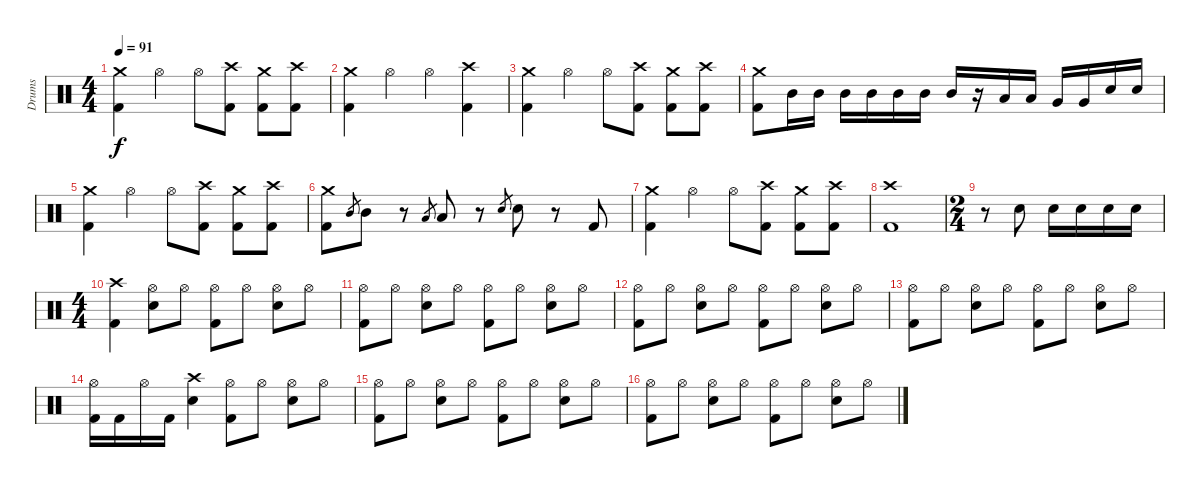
\track ("Drums" "Drums") {instrument percussion}
\staff {score}
\articulation defaults
\ts (4 4)
\tempo 91
\clef neutral
\ks c
("Crash medium (hit)" "Kick (hit) 2").4{dy f} "Hi-Hat (open)".4 "Hi-Hat (open)".8 ("Crash high (hit)" "Kick (hit) 2").8 ("Crash medium (hit)" "Kick (hit) 2").8 ("Crash high (hit)" "Kick (hit) 2").8 |
("Crash medium (hit)" "Kick (hit) 2").4 "Hi-Hat (open)".4 "Hi-Hat (open)".4 ("Crash high (hit)" "Kick (hit) 2").4 |
("Crash medium (hit)" "Kick (hit) 2").4 "Hi-Hat (open)".4 "Hi-Hat (open)".8 ("Crash high (hit)" "Kick (hit) 2").8 ("Crash medium (hit)" "Kick (hit) 2").8 ("Crash high (hit)" "Kick (hit) 2").8 |
("Crash medium (hit)" "Kick (hit) 2").8 "Mid Tom (hit)".16 "Mid Tom (hit)".16 "Mid Tom (hit)".16 "Mid Tom (hit)".16 "Mid Tom (hit)".16 "Mid Tom (hit)".16 "Mid Tom (hit)".16 r.16 "Low Tom (hit)".16 "Low Tom (hit)".16 "Very Low Tom (hit)".16 "Very Low Tom (hit)".16 "Electric Snare (hit)".16 "Electric Snare (hit)".16 |
("Crash medium (hit)" "Kick (hit) 2").4 "Hi-Hat (open)".4 "Hi-Hat (open)".8 ("Crash high (hit)" "Kick (hit) 2").8 ("Crash medium (hit)" "Kick (hit) 2").8 ("Crash high (hit)" "Kick (hit) 2").8 |
("Crash medium (hit)" "Kick (hit) 2").8 "Mid Tom (hit)".8{gr} "Mid Tom (hit)".8 r.8 "Low Tom (hit)".8{gr} "Low Tom (hit)".8 r.8 "Electric Snare (hit)".8{gr} "Electric Snare (hit)".8 r.8 "Kick (hit) 2".8 |
("Crash medium (hit)" "Kick (hit) 2").4 "Hi-Hat (open)".4 "Hi-Hat (open)".8 ("Crash high (hit)" "Kick (hit) 2").8 ("Crash medium (hit)" "Kick (hit) 2").8 ("Crash high (hit)" "Kick (hit) 2").8 |
("Crash high (hit)" "Kick (hit) 2").1 |
\ts (2 4)
r.8 "Electric Snare (hit)".8 "Electric Snare (hit)".16 "Electric Snare (hit)".16 "Electric Snare (hit)".16 "Electric Snare (hit)".16 |
\ts (4 4)
("Crash high (hit)" "Kick (hit) 2").4 ("Hi-Hat (open)" "Electric Snare (hit)").8 "Hi-Hat (open)".8 ("Hi-Hat (open)" "Kick (hit) 2").8 "Hi-Hat (open)".8 ("Hi-Hat (open)" "Electric Snare (hit)").8 "Hi-Hat (open)".8 |
("Hi-Hat (open)" "Kick (hit) 2").8 "Hi-Hat (open)".8 ("Hi-Hat (open)" "Electric Snare (hit)").8 "Hi-Hat (open)".8 ("Hi-Hat (open)" "Kick (hit) 2").8 "Hi-Hat (open)".8 ("Hi-Hat (open)" "Electric Snare (hit)").8 "Hi-Hat (open)".8 |
("Hi-Hat (open)" "Kick (hit) 2").8 "Hi-Hat (open)".8 ("Hi-Hat (open)" "Electric Snare (hit)").8 "Hi-Hat (open)".8 ("Hi-Hat (open)" "Kick (hit) 2").8 "Hi-Hat (open)".8 ("Hi-Hat (open)" "Electric Snare (hit)").8 "Hi-Hat (open)".8 |
("Hi-Hat (open)" "Kick (hit) 2").8 "Hi-Hat (open)".8 ("Hi-Hat (open)" "Electric Snare (hit)").8 "Hi-Hat (open)".8 ("Hi-Hat (open)" "Kick (hit) 2").8 "Hi-Hat (open)".8 ("Hi-Hat (open)" "Electric Snare (hit)").8 "Hi-Hat (open)".8 |
("Hi-Hat (open)" "Kick (hit) 2").16 "Kick (hit) 2".16 "Hi-Hat (open)".16 "Kick (hit) 2".16 ("Crash high (hit)" "Electric Snare (hit)").4 ("Hi-Hat (open)" "Kick (hit) 2").8 "Hi-Hat (open)".8 ("Hi-Hat (open)" "Electric Snare (hit)").8 "Hi-Hat (open)".8 |
("Hi-Hat (open)" "Kick (hit) 2").8 "Hi-Hat (open)".8 ("Hi-Hat (open)" "Electric Snare (hit)").8 "Hi-Hat (open)".8 ("Hi-Hat (open)" "Kick (hit) 2").8 "Hi-Hat (open)".8 ("Hi-Hat (open)" "Electric Snare (hit)").8 "Hi-Hat (open)".8 |
("Hi-Hat (open)" "Kick (hit) 2").8 "Hi-Hat (open)".8 ("Hi-Hat (open)" "Electric Snare (hit)").8 "Hi-Hat (open)".8 ("Hi-Hat (open)" "Kick (hit) 2").8 "Hi-Hat (open)".8 ("Hi-Hat (open)" "Electric Snare (hit)").8 "Hi-Hat (open)".8
